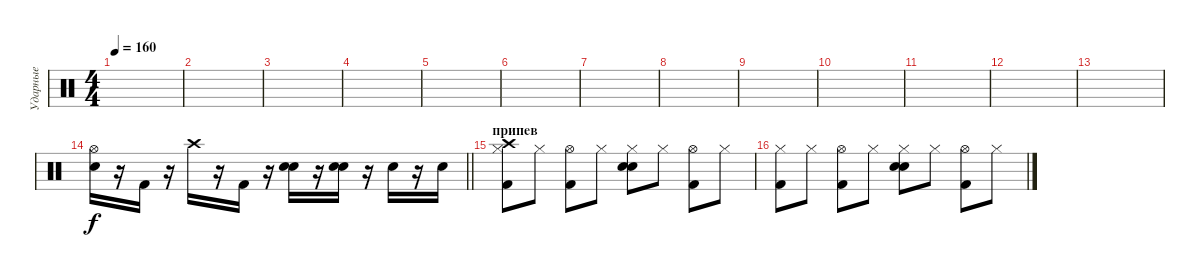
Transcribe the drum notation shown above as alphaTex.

\track ("Ударные" "Ударные") {instrument percussion}
\staff {score}
\articulation defaults
\ts (4 4)
\tempo 160
\clef neutral
\ks c
|
|
|
|
|
|
|
|
|
|
|
|
|
\barLineRight lightlight
("Snare (hit) 2" "Hi-Hat (open)").16 r.16 "Kick (hit) 2".16 r.16 "Crash high (hit)".16 r.16 "Kick (hit) 2".16 r.16 ("Snare (hit) 2" "Electric Snare (hit)").16 r.16 ("Snare (hit) 2" "Electric Snare (hit)").16 r.16 "Electric Snare (hit)".16 r.16 "Electric Snare (hit)".16 |
\section ("" "припев")
("Hi-Hat (closed)" "Crash high (hit)" "Kick (hit) 2").8 "Hi-Hat (closed)".8 ("Hi-Hat (open)" "Kick (hit) 2").8 "Hi-Hat (closed)".8 ("Hi-Hat (closed)" "Electric Snare (hit)" "Snare (hit) 2").8 "Hi-Hat (closed)".8 ("Hi-Hat (open)" "Kick (hit) 2").8 "Hi-Hat (closed)".8 |
("Hi-Hat (closed)" "Kick (hit) 2").8 "Hi-Hat (closed)".8 ("Hi-Hat (open)" "Kick (hit) 2").8 "Hi-Hat (closed)".8 ("Hi-Hat (closed)" "Snare (hit) 2" "Electric Snare (hit)").8 "Hi-Hat (closed)".8 ("Hi-Hat (open)" "Kick (hit) 2").8 "Hi-Hat (closed)".8
